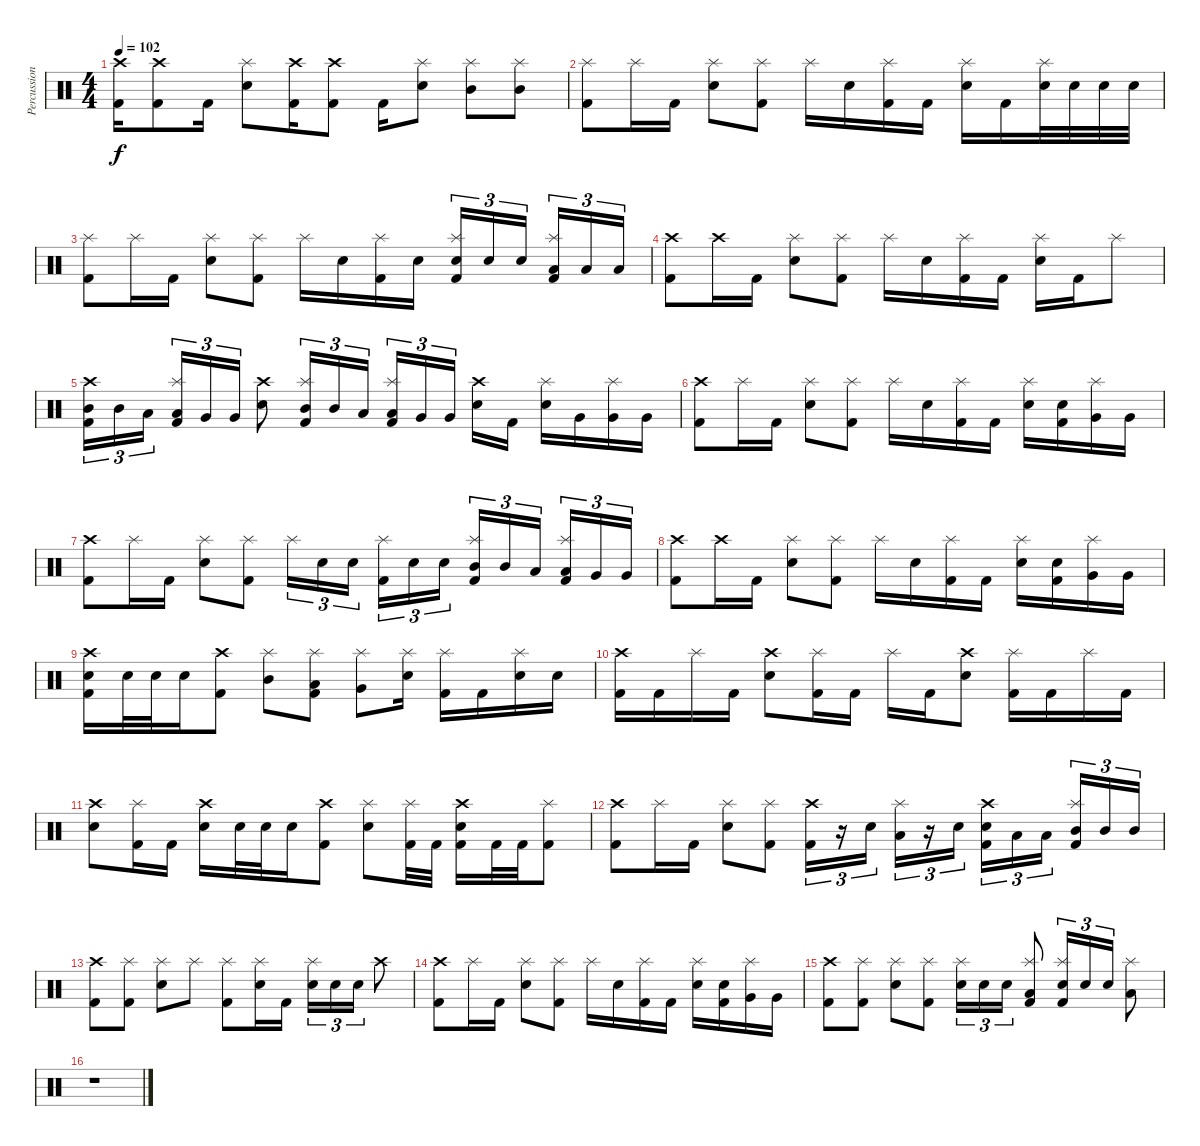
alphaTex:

\track ("Percussions" "Percussion") {instrument percussion}
\staff {score}
\articulation defaults
\ts (4 4)
\tempo 102
\clef neutral
\ks c
("Crash high (hit)" "Kick (hit) 2").16{dy f} ("Crash high (hit)" "Kick (hit) 2").8 "Kick (hit) 2".16 ("Splash (hit)" "Electric Snare (hit)").8 ("Crash high (hit)" "Kick (hit) 2").16 ("Crash high (hit)" "Kick (hit) 2").8 "Kick (hit) 2".16 ("Splash (hit)" "Electric Snare (hit)").8 ("Splash (hit)" "Mid Tom (hit)").8 ("Splash (hit)" "Mid Tom (hit)").8 |
("Splash (hit)" "Kick (hit) 2").8 "Splash (hit)".16 "Kick (hit) 2".16 ("Splash (hit)" "Electric Snare (hit)").8 ("Splash (hit)" "Kick (hit) 2").8 "Splash (hit)".16 "Electric Snare (hit)".16 ("Splash (hit)" "Kick (hit) 2").16 "Kick (hit) 2".16 ("Splash (hit)" "Electric Snare (hit)").16 "Kick (hit) 2".16 ("Splash (hit)" "Electric Snare (hit)").32 "Electric Snare (hit)".32 "Electric Snare (hit)".32 "Electric Snare (hit)".32 |
("Splash (hit)" "Kick (hit) 2").8 "Splash (hit)".16 "Kick (hit) 2".16 ("Splash (hit)" "Electric Snare (hit)").8 ("Splash (hit)" "Kick (hit) 2").8 "Splash (hit)".16 "Electric Snare (hit)".16 ("Splash (hit)" "Kick (hit) 2").16 "Electric Snare (hit)".16 ("Splash (hit)" "Electric Snare (hit)" "Kick (hit) 2").16{tu (3 2)} "Electric Snare (hit)".16{tu (3 2)} "Electric Snare (hit)".16{tu (3 2)} ("Splash (hit)" "Low Tom (hit)" "Kick (hit) 2").16{tu (3 2)} "Low Tom (hit)".16{tu (3 2)} "Low Tom (hit)".16{tu (3 2)} |
("Crash high (hit)" "Kick (hit) 2").8 "Crash high (hit)".16 "Kick (hit) 2".16 ("Splash (hit)" "Electric Snare (hit)").8 ("Splash (hit)" "Kick (hit) 2").8 "Splash (hit)".16 "Electric Snare (hit)".16 ("Splash (hit)" "Kick (hit) 2").16 "Kick (hit) 2".16 ("Splash (hit)" "Electric Snare (hit)").16 "Kick (hit) 2".16 "Splash (hit)".8 |
("Crash high (hit)" "Mid Tom (hit)" "Kick (hit) 2").16{tu (3 2)} "Mid Tom (hit)".16{tu (3 2)} "Low Tom (hit)".16{tu (3 2)} ("Splash (hit)" "Low Tom (hit)" "Kick (hit) 2").16{tu (3 2)} "Very Low Tom (hit)".16{tu (3 2)} "Very Low Tom (hit)".16{tu (3 2)} ("Crash high (hit)" "Electric Snare (hit)").8 ("Splash (hit)" "Mid Tom (hit)" "Kick (hit) 2").16{tu (3 2)} "Mid Tom (hit)".16{tu (3 2)} "Low Tom (hit)".16{tu (3 2)} ("Splash (hit)" "Low Tom (hit)" "Kick (hit) 2").16{tu (3 2)} "Very Low Tom (hit)".16{tu (3 2)} "Very Low Tom (hit)".16{tu (3 2)} ("Crash high (hit)" "Electric Snare (hit)").16 "Kick (hit) 2".16 ("Splash (hit)" "Electric Snare (hit)").16 "Very Low Tom (hit)".16 ("Splash (hit)" "Very Low Tom (hit)").16 "Very Low Tom (hit)".16 |
("Crash high (hit)" "Kick (hit) 2").8 "Splash (hit)".16 "Kick (hit) 2".16 ("Splash (hit)" "Electric Snare (hit)").8 ("Splash (hit)" "Kick (hit) 2").8 "Splash (hit)".16 "Electric Snare (hit)".16 ("Splash (hit)" "Kick (hit) 2").16 "Kick (hit) 2".16 ("Splash (hit)" "Electric Snare (hit)").16 ("Electric Snare (hit)" "Kick (hit) 2").16 ("Splash (hit)" "Very Low Tom (hit)").16 "Very Low Tom (hit)".16 |
("Crash high (hit)" "Kick (hit) 2").8 "Splash (hit)".16 "Kick (hit) 2".16 ("Splash (hit)" "Electric Snare (hit)").8 ("Splash (hit)" "Kick (hit) 2").8 "Splash (hit)".16{tu (3 2)} "Electric Snare (hit)".16{tu (3 2)} "Electric Snare (hit)".16{tu (3 2)} ("Splash (hit)" "Kick (hit) 2").16{tu (3 2)} "Electric Snare (hit)".16{tu (3 2)} "Electric Snare (hit)".16{tu (3 2)} ("Splash (hit)" "Mid Tom (hit)" "Kick (hit) 2").16{tu (3 2)} "Mid Tom (hit)".16{tu (3 2)} "Low Tom (hit)".16{tu (3 2)} ("Splash (hit)" "Low Tom (hit)" "Kick (hit) 2").16{tu (3 2)} "Very Low Tom (hit)".16{tu (3 2)} "Very Low Tom (hit)".16{tu (3 2)} |
("Crash high (hit)" "Kick (hit) 2").8 "Crash high (hit)".16 "Kick (hit) 2".16 ("Splash (hit)" "Electric Snare (hit)").8 ("Splash (hit)" "Kick (hit) 2").8 "Splash (hit)".16 "Electric Snare (hit)".16 ("Splash (hit)" "Kick (hit) 2").16 "Kick (hit) 2".16 ("Splash (hit)" "Electric Snare (hit)").16 ("Electric Snare (hit)" "Kick (hit) 2").16 ("Splash (hit)" "Very Low Tom (hit)").16 "Very Low Tom (hit)".16 |
("Crash high (hit)" "Electric Snare (hit)" "Kick (hit) 2").16 "Electric Snare (hit)".32 "Electric Snare (hit)".32 "Electric Snare (hit)".16 ("Crash high (hit)" "Kick (hit) 2").8 ("Splash (hit)" "Mid Tom (hit)").8 ("Splash (hit)" "Low Tom (hit)" "Kick (hit) 2").8 ("Splash (hit)" "Very Low Tom (hit)").8 ("Splash (hit)" "Electric Snare (hit)").16 ("Splash (hit)" "Kick (hit) 2").16 "Kick (hit) 2".16 ("Splash (hit)" "Electric Snare (hit)").16 "Electric Snare (hit)".16 |
("Crash high (hit)" "Kick (hit) 2").16 "Kick (hit) 2".16 "Splash (hit)".16 "Kick (hit) 2".16 ("Crash high (hit)" "Electric Snare (hit)").8 ("Splash (hit)" "Kick (hit) 2").16 "Kick (hit) 2".16 "Splash (hit)".16 "Kick (hit) 2".16 ("Crash high (hit)" "Electric Snare (hit)").8 ("Splash (hit)" "Kick (hit) 2").16 "Kick (hit) 2".16 "Splash (hit)".16 "Kick (hit) 2".16 |
("Crash high (hit)" "Electric Snare (hit)").8 ("Splash (hit)" "Kick (hit) 2").16 "Kick (hit) 2".16 ("Crash high (hit)" "Electric Snare (hit)").16 "Electric Snare (hit)".32 "Electric Snare (hit)".32 "Electric Snare (hit)".16 ("Crash high (hit)" "Kick (hit) 2").8 ("Splash (hit)" "Electric Snare (hit)").8 ("Splash (hit)" "Kick (hit) 2").32 "Kick (hit) 2".32 ("Crash high (hit)" "Electric Snare (hit)" "Kick (hit) 2").16 "Kick (hit) 2".32 "Kick (hit) 2".32 ("Splash (hit)" "Kick (hit) 2").8 |
("Crash high (hit)" "Kick (hit) 2").8 "Splash (hit)".16 "Kick (hit) 2".16 ("Splash (hit)" "Electric Snare (hit)").8 ("Splash (hit)" "Kick (hit) 2").8 ("Crash high (hit)" "Kick (hit) 2").16{tu (3 2)} r.16{tu (3 2)} "Electric Snare (hit)".16{tu (3 2)} ("Splash (hit)" "Low Tom (hit)").16{tu (3 2)} r.16{tu (3 2)} "Electric Snare (hit)".16{tu (3 2)} ("Crash high (hit)" "Electric Snare (hit)" "Kick (hit) 2").16{tu (3 2)} "Low Tom (hit)".16{tu (3 2)} "Low Tom (hit)".16{tu (3 2)} ("Splash (hit)" "Mid Tom (hit)" "Kick (hit) 2").16{tu (3 2)} "Mid Tom (hit)".16{tu (3 2)} "Mid Tom (hit)".16{tu (3 2)} |
("Crash high (hit)" "Kick (hit) 2").8{volume 6} ("Splash (hit)" "Kick (hit) 2").8 ("Splash (hit)" "Electric Snare (hit)").8 "Splash (hit)".8 ("Splash (hit)" "Kick (hit) 2").8 ("Splash (hit)" "Electric Snare (hit)").16 "Kick (hit) 2".16 ("Splash (hit)" "Electric Snare (hit)").16{tu (3 2)} "Electric Snare (hit)".16{tu (3 2)} "Electric Snare (hit)".16{tu (3 2)} "Crash high (hit)".8 |
("Crash high (hit)" "Kick (hit) 2").8 "Splash (hit)".16 "Kick (hit) 2".16 ("Splash (hit)" "Electric Snare (hit)").8 ("Splash (hit)" "Kick (hit) 2").8 "Splash (hit)".16 "Electric Snare (hit)".16 ("Splash (hit)" "Kick (hit) 2").16 "Kick (hit) 2".16 ("Splash (hit)" "Electric Snare (hit)").16 ("Electric Snare (hit)" "Kick (hit) 2").16 ("Splash (hit)" "Very Low Tom (hit)").16 "Very Low Tom (hit)".16 |
("Crash high (hit)" "Kick (hit) 2").8{volume 0} ("Splash (hit)" "Kick (hit) 2").8 ("Splash (hit)" "Electric Snare (hit)").8 ("Splash (hit)" "Kick (hit) 2").8 ("Splash (hit)" "Electric Snare (hit)").16{tu (3 2)} "Electric Snare (hit)".16{tu (3 2)} "Electric Snare (hit)".16{tu (3 2)} ("Splash (hit)" "Low Tom (hit)" "Kick (hit) 2").8 ("Splash (hit)" "Electric Snare (hit)" "Kick (hit) 2").16{tu (3 2)} "Electric Snare (hit)".16{tu (3 2)} "Electric Snare (hit)".16{tu (3 2)} ("Splash (hit)" "Low Tom (hit)").8 |
r.1
